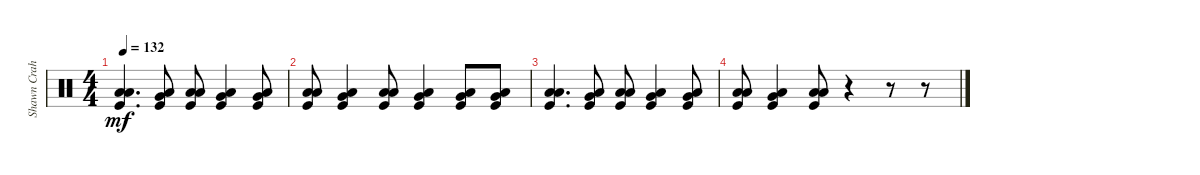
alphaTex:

\track ("Shawn Crahan" "Shawn Crah") {instrument percussion}
\staff {score}
\articulation defaults
\ts (4 4)
\tempo 132
\clef neutral
\ks c
("Low Floor Tom (hit)" "Kick (hit)" "Low Tom (hit)").4{d dy mf} ("Low Floor Tom (hit)" "Kick (hit)" "Very Low Tom (hit)").8 ("Low Floor Tom (hit)" "Kick (hit)" "Low Tom (hit)").8 ("Low Floor Tom (hit)" "Kick (hit)" "Very Low Tom (hit)").4 ("Low Floor Tom (hit)" "Kick (hit)" "Very Low Tom (hit)").8 |
("Low Floor Tom (hit)" "Kick (hit)" "Low Tom (hit)").8 ("Low Floor Tom (hit)" "Kick (hit)" "Very Low Tom (hit)").4 ("Low Floor Tom (hit)" "Kick (hit)" "Low Tom (hit)").8 ("Low Floor Tom (hit)" "Kick (hit)" "Very Low Tom (hit)").4 ("Low Floor Tom (hit)" "Kick (hit)" "Very Low Tom (hit)").8 ("Low Floor Tom (hit)" "Kick (hit)" "Very Low Tom (hit)").8 |
("Low Floor Tom (hit)" "Kick (hit)" "Low Tom (hit)").4{d} ("Low Floor Tom (hit)" "Kick (hit)" "Very Low Tom (hit)").8 ("Low Floor Tom (hit)" "Kick (hit)" "Low Tom (hit)").8 ("Low Floor Tom (hit)" "Kick (hit)" "Very Low Tom (hit)").4 ("Low Floor Tom (hit)" "Kick (hit)" "Very Low Tom (hit)").8 |
("Low Floor Tom (hit)" "Kick (hit)" "Low Tom (hit)").8 ("Low Floor Tom (hit)" "Kick (hit)" "Very Low Tom (hit)").4 ("Low Floor Tom (hit)" "Kick (hit)" "Low Tom (hit)").8 r.4 r.8 r.8
